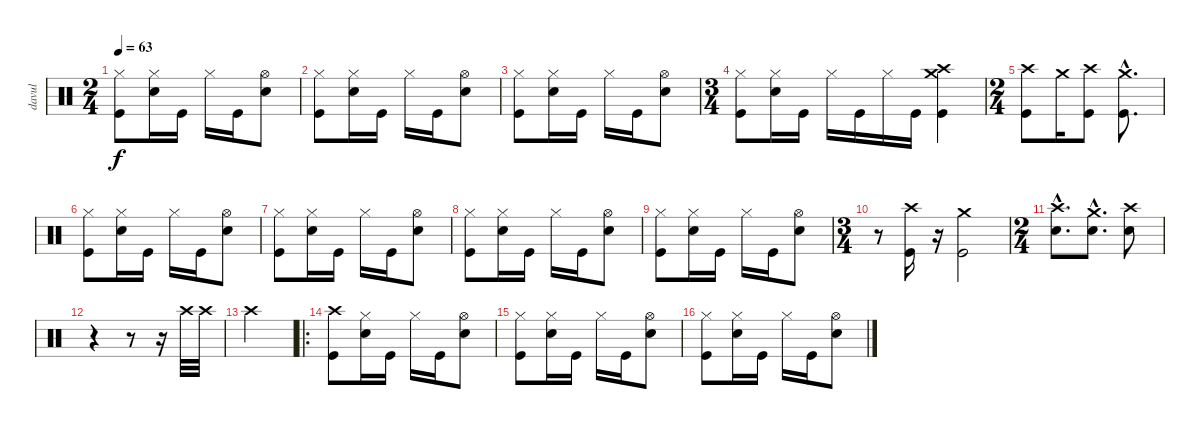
\track ("davul" "davul") {instrument percussion}
\staff {score}
\articulation defaults
\ts (2 4)
\tempo 63
\clef neutral
\ks c
("Hi-Hat (closed)" "Kick (hit)").8{dy f} ("Hi-Hat (closed)" "Snare (hit) 2").16 "Kick (hit)".16 "Hi-Hat (closed)".16 "Kick (hit)".16 ("Hi-Hat (open)" "Snare (hit) 2").8 |
("Hi-Hat (closed)" "Kick (hit)").8 ("Hi-Hat (closed)" "Snare (hit) 2").16 "Kick (hit)".16 "Hi-Hat (closed)".16 "Kick (hit)".16 ("Hi-Hat (open)" "Snare (hit) 2").8 |
("Hi-Hat (closed)" "Kick (hit)").8 ("Hi-Hat (closed)" "Snare (hit) 2").16 "Kick (hit)".16 "Hi-Hat (closed)".16 "Kick (hit)".16 ("Hi-Hat (open)" "Snare (hit) 2").8 |
\ts (3 4)
("Hi-Hat (closed)" "Kick (hit)").8 ("Hi-Hat (closed)" "Snare (hit) 2").16 "Kick (hit)".16 "Hi-Hat (closed)".16 "Kick (hit)".16 "Hi-Hat (closed)".16 "Kick (hit)".16 ("Crash medium (hit)" "Crash high (hit)" "Kick (hit)").4 |
\ts (2 4)
("Crash high (hit)" "Kick (hit)").8 "Crash medium (hit)".16 ("Crash high (hit)" "Kick (hit)").8 ("Crash medium (hit)"{hac} "Kick (hit)"{hac}).8{d} |
("Hi-Hat (closed)" "Kick (hit)").8 ("Hi-Hat (closed)" "Snare (hit) 2").16 "Kick (hit)".16 "Hi-Hat (closed)".16 "Kick (hit)".16 ("Hi-Hat (open)" "Snare (hit) 2").8 |
("Hi-Hat (closed)" "Kick (hit)").8 ("Hi-Hat (closed)" "Snare (hit) 2").16 "Kick (hit)".16 "Hi-Hat (closed)".16 "Kick (hit)".16 ("Hi-Hat (open)" "Snare (hit) 2").8 |
("Hi-Hat (closed)" "Kick (hit)").8 ("Hi-Hat (closed)" "Snare (hit) 2").16 "Kick (hit)".16 "Hi-Hat (closed)".16 "Kick (hit)".16 ("Hi-Hat (open)" "Snare (hit) 2").8 |
("Hi-Hat (closed)" "Kick (hit)").8 ("Hi-Hat (closed)" "Snare (hit) 2").16 "Kick (hit)".16 "Hi-Hat (closed)".16 "Kick (hit)".16 ("Hi-Hat (open)" "Snare (hit) 2").8 |
\ts (3 4)
r.8 ("Crash high (hit)" "Kick (hit)").16 r.16 ("Crash medium (hit)" "Kick (hit)").2 |
\ts (2 4)
("Crash high (hit)"{hac} "Snare (hit) 2"{hac}).8{d} ("Crash medium (hit)"{hac} "Snare (hit) 2"{hac}).8{d} ("Crash high (hit)" "Snare (hit) 2").8 |
r.4 r.8 r.16 "Crash high (hit)".32 "Crash high (hit)".32 |
"Crash high (hit)".2 |
\ro
("Crash high (hit)" "Kick (hit)").8 ("Hi-Hat (closed)" "Snare (hit) 2").16 "Kick (hit)".16 "Hi-Hat (closed)".16 "Kick (hit)".16 ("Hi-Hat (open)" "Snare (hit) 2").8 |
("Hi-Hat (closed)" "Kick (hit)").8 ("Hi-Hat (closed)" "Snare (hit) 2").16 "Kick (hit)".16 "Hi-Hat (closed)".16 "Kick (hit)".16 ("Hi-Hat (open)" "Snare (hit) 2").8 |
("Hi-Hat (closed)" "Kick (hit)").8 ("Hi-Hat (closed)" "Snare (hit) 2").16 "Kick (hit)".16 "Hi-Hat (closed)".16 "Kick (hit)".16 ("Hi-Hat (open)" "Snare (hit) 2").8
